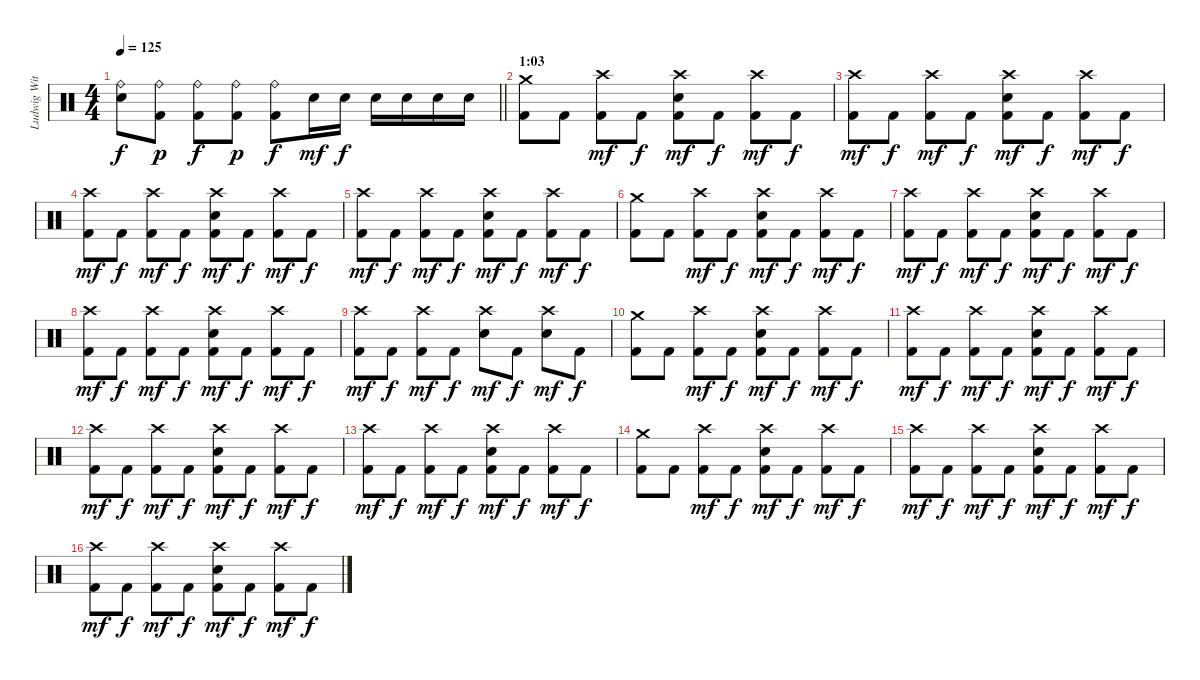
\track ("Ludwig Witt" "Ludwig Wit") {instrument percussion}
\staff {score}
\articulation defaults
\ts (4 4)
\tempo 125
\clef neutral
\barLineRight lightlight
\ks c
("Ride (bell)" "Electric Snare (hit)").8{dy f} ("Ride (bell)" "Kick (hit) 2").8{dy p} ("Ride (bell)" "Kick (hit) 2").8{dy f} ("Ride (bell)" "Kick (hit) 2").8{dy p} ("Ride (bell)" "Kick (hit) 2").8{dy f} "Electric Snare (hit)".16{dy mf} "Electric Snare (hit)".16{dy f} "Electric Snare (hit)".16 "Electric Snare (hit)".16 "Electric Snare (hit)".16 "Electric Snare (hit)".16 |
\section ("" "1:03")
("Crash medium (hit)" "Kick (hit) 2").8 "Kick (hit) 2".8 ("Crash high (hit)" "Kick (hit) 2").8{dy mf} "Kick (hit) 2".8{dy f} ("Crash high (hit)" "Electric Snare (hit)" "Kick (hit) 2").8{dy mf} "Kick (hit) 2".8{dy f} ("Crash high (hit)" "Kick (hit) 2").8{dy mf} "Kick (hit) 2".8{dy f} |
("Crash high (hit)" "Kick (hit) 2").8{dy mf} "Kick (hit) 2".8{dy f} ("Crash high (hit)" "Kick (hit) 2").8{dy mf} "Kick (hit) 2".8{dy f} ("Crash high (hit)" "Electric Snare (hit)" "Kick (hit) 2").8{dy mf} "Kick (hit) 2".8{dy f} ("Crash high (hit)" "Kick (hit) 2").8{dy mf} "Kick (hit) 2".8{dy f} |
("Crash high (hit)" "Kick (hit) 2").8{dy mf} "Kick (hit) 2".8{dy f} ("Crash high (hit)" "Kick (hit) 2").8{dy mf} "Kick (hit) 2".8{dy f} ("Crash high (hit)" "Electric Snare (hit)" "Kick (hit) 2").8{dy mf} "Kick (hit) 2".8{dy f} ("Crash high (hit)" "Kick (hit) 2").8{dy mf} "Kick (hit) 2".8{dy f} |
("Crash high (hit)" "Kick (hit) 2").8{dy mf} "Kick (hit) 2".8{dy f} ("Crash high (hit)" "Kick (hit) 2").8{dy mf} "Kick (hit) 2".8{dy f} ("Crash high (hit)" "Electric Snare (hit)" "Kick (hit) 2").8{dy mf} "Kick (hit) 2".8{dy f} ("Crash high (hit)" "Kick (hit) 2").8{dy mf} "Kick (hit) 2".8{dy f} |
("Crash medium (hit)" "Kick (hit) 2").8 "Kick (hit) 2".8 ("Crash high (hit)" "Kick (hit) 2").8{dy mf} "Kick (hit) 2".8{dy f} ("Crash high (hit)" "Electric Snare (hit)" "Kick (hit) 2").8{dy mf} "Kick (hit) 2".8{dy f} ("Crash high (hit)" "Kick (hit) 2").8{dy mf} "Kick (hit) 2".8{dy f} |
("Crash high (hit)" "Kick (hit) 2").8{dy mf} "Kick (hit) 2".8{dy f} ("Crash high (hit)" "Kick (hit) 2").8{dy mf} "Kick (hit) 2".8{dy f} ("Crash high (hit)" "Electric Snare (hit)" "Kick (hit) 2").8{dy mf} "Kick (hit) 2".8{dy f} ("Crash high (hit)" "Kick (hit) 2").8{dy mf} "Kick (hit) 2".8{dy f} |
("Crash high (hit)" "Kick (hit) 2").8{dy mf} "Kick (hit) 2".8{dy f} ("Crash high (hit)" "Kick (hit) 2").8{dy mf} "Kick (hit) 2".8{dy f} ("Crash high (hit)" "Electric Snare (hit)" "Kick (hit) 2").8{dy mf} "Kick (hit) 2".8{dy f} ("Crash high (hit)" "Kick (hit) 2").8{dy mf} "Kick (hit) 2".8{dy f} |
("Crash high (hit)" "Kick (hit) 2").8{dy mf} "Kick (hit) 2".8{dy f} ("Crash high (hit)" "Kick (hit) 2").8{dy mf} "Kick (hit) 2".8{dy f} ("Crash high (hit)" "Electric Snare (hit)").8{dy mf} "Kick (hit) 2".8{dy f} ("Crash high (hit)" "Electric Snare (hit)").8{dy mf} "Kick (hit) 2".8{dy f} |
("Crash medium (hit)" "Kick (hit) 2").8 "Kick (hit) 2".8 ("Crash high (hit)" "Kick (hit) 2").8{dy mf} "Kick (hit) 2".8{dy f} ("Crash high (hit)" "Electric Snare (hit)" "Kick (hit) 2").8{dy mf} "Kick (hit) 2".8{dy f} ("Crash high (hit)" "Kick (hit) 2").8{dy mf} "Kick (hit) 2".8{dy f} |
("Crash high (hit)" "Kick (hit) 2").8{dy mf} "Kick (hit) 2".8{dy f} ("Crash high (hit)" "Kick (hit) 2").8{dy mf} "Kick (hit) 2".8{dy f} ("Crash high (hit)" "Electric Snare (hit)" "Kick (hit) 2").8{dy mf} "Kick (hit) 2".8{dy f} ("Crash high (hit)" "Kick (hit) 2").8{dy mf} "Kick (hit) 2".8{dy f} |
("Crash high (hit)" "Kick (hit) 2").8{dy mf} "Kick (hit) 2".8{dy f} ("Crash high (hit)" "Kick (hit) 2").8{dy mf} "Kick (hit) 2".8{dy f} ("Crash high (hit)" "Electric Snare (hit)" "Kick (hit) 2").8{dy mf} "Kick (hit) 2".8{dy f} ("Crash high (hit)" "Kick (hit) 2").8{dy mf} "Kick (hit) 2".8{dy f} |
("Crash high (hit)" "Kick (hit) 2").8{dy mf} "Kick (hit) 2".8{dy f} ("Crash high (hit)" "Kick (hit) 2").8{dy mf} "Kick (hit) 2".8{dy f} ("Crash high (hit)" "Electric Snare (hit)" "Kick (hit) 2").8{dy mf} "Kick (hit) 2".8{dy f} ("Crash high (hit)" "Kick (hit) 2").8{dy mf} "Kick (hit) 2".8{dy f} |
("Crash medium (hit)" "Kick (hit) 2").8 "Kick (hit) 2".8 ("Crash high (hit)" "Kick (hit) 2").8{dy mf} "Kick (hit) 2".8{dy f} ("Crash high (hit)" "Electric Snare (hit)" "Kick (hit) 2").8{dy mf} "Kick (hit) 2".8{dy f} ("Crash high (hit)" "Kick (hit) 2").8{dy mf} "Kick (hit) 2".8{dy f} |
("Crash high (hit)" "Kick (hit) 2").8{dy mf} "Kick (hit) 2".8{dy f} ("Crash high (hit)" "Kick (hit) 2").8{dy mf} "Kick (hit) 2".8{dy f} ("Crash high (hit)" "Electric Snare (hit)" "Kick (hit) 2").8{dy mf} "Kick (hit) 2".8{dy f} ("Crash high (hit)" "Kick (hit) 2").8{dy mf} "Kick (hit) 2".8{dy f} |
("Crash high (hit)" "Kick (hit) 2").8{dy mf} "Kick (hit) 2".8{dy f} ("Crash high (hit)" "Kick (hit) 2").8{dy mf} "Kick (hit) 2".8{dy f} ("Crash high (hit)" "Electric Snare (hit)" "Kick (hit) 2").8{dy mf} "Kick (hit) 2".8{dy f} ("Crash high (hit)" "Kick (hit) 2").8{dy mf} "Kick (hit) 2".8{dy f}
